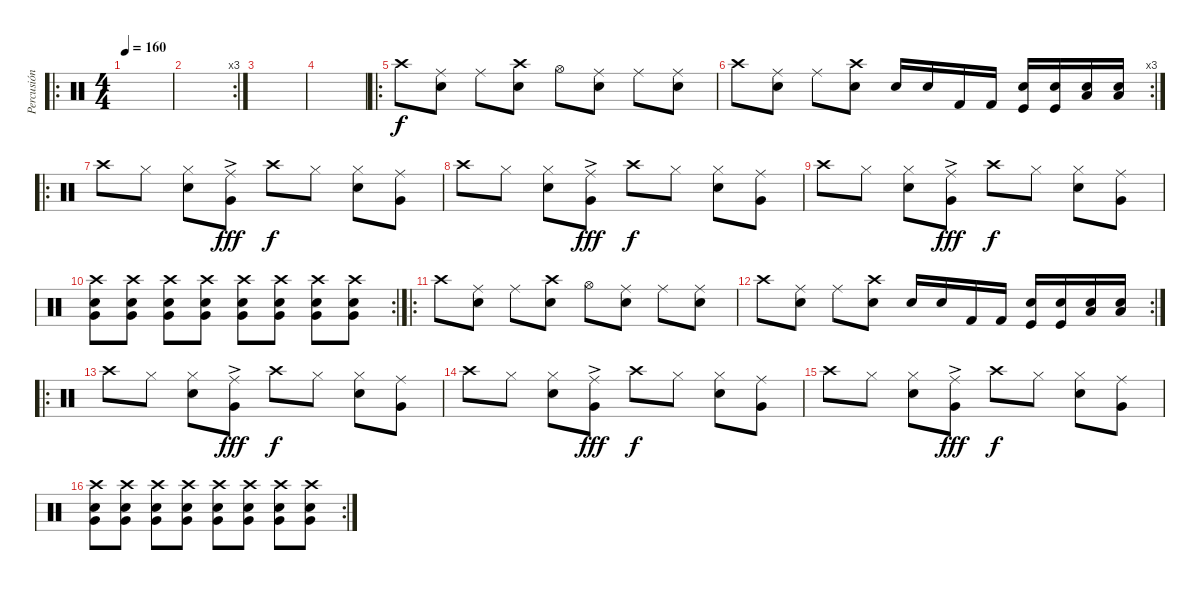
\track ("Percusión" "Percusión") {instrument percussion}
\staff {score}
\articulation defaults
\ro
\ts (4 4)
\tempo 160
\clef neutral
\ks c
|
\rc 3
|
|
|
\ro "Crash high (hit)".8
("Ride (middle)" "Snare (hit) 2").8 "Ride (middle)".8 ("Crash high (hit)" "Snare (hit) 2").8 "Hi-Hat (open)".8 ("Ride (middle)" "Snare (hit) 2").8 "Ride (middle)".8 ("Ride (middle)" "Snare (hit) 2").8 |
\rc 3 "Crash high (hit)".8
("Ride (middle)" "Snare (hit) 2").8 "Ride (middle)".8 ("Crash high (hit)" "Snare (hit) 2").8 "Snare (hit) 2".16 "Snare (hit) 2".16 "Kick (hit) 2".16 "Kick (hit) 2".16 ("Kick (hit)" "Snare (hit) 2").16 ("Kick (hit)" "Snare (hit) 2").16 ("Snare (hit) 2" "Low Floor Tom (hit)").16 ("Snare (hit) 2" "Low Floor Tom (hit)").16 |
\ro "Crash high (hit)".8 "Hi-Hat (closed)".8
("Hi-Hat (closed)" "Snare (hit) 2").8 ("Ride (middle)" "Very Low Tom (hit)"{ac}).8{dy fff} "Crash high (hit)".8{dy f} "Hi-Hat (closed)".8 ("Hi-Hat (closed)" "Snare (hit) 2").8 ("Ride (middle)" "Very Low Tom (hit)").8 |
"Crash high (hit)".8 "Hi-Hat (closed)".8 ("Hi-Hat (closed)" "Snare (hit) 2").8 ("Ride (middle)" "Very Low Tom (hit)"{ac}).8{dy fff} "Crash high (hit)".8{dy f} "Hi-Hat (closed)".8 ("Hi-Hat (closed)" "Snare (hit) 2").8 ("Ride (middle)" "Very Low Tom (hit)").8 |
"Crash high (hit)".8 "Hi-Hat (closed)".8 ("Hi-Hat (closed)" "Snare (hit) 2").8 ("Ride (middle)" "Very Low Tom (hit)"{ac}).8{dy fff} "Crash high (hit)".8{dy f} "Hi-Hat (closed)".8 ("Hi-Hat (closed)" "Snare (hit) 2").8 ("Ride (middle)" "Very Low Tom (hit)").8 |
\rc 2
("Crash high (hit)" "Snare (hit) 2" "Very Low Tom (hit)").8 ("Crash high (hit)" "Snare (hit) 2" "Very Low Tom (hit)").8 ("Crash high (hit)" "Snare (hit) 2" "Very Low Tom (hit)").8 ("Crash high (hit)" "Snare (hit) 2" "Very Low Tom (hit)").8 ("Crash high (hit)" "Snare (hit) 2" "Very Low Tom (hit)").8 ("Crash high (hit)" "Snare (hit) 2" "Very Low Tom (hit)").8 ("Crash high (hit)" "Snare (hit) 2" "Very Low Tom (hit)").8 ("Crash high (hit)" "Snare (hit) 2" "Very Low Tom (hit)").8 |
\ro "Crash high (hit)".8
("Ride (middle)" "Snare (hit) 2").8 "Ride (middle)".8 ("Crash high (hit)" "Snare (hit) 2").8 "Hi-Hat (open)".8 ("Ride (middle)" "Snare (hit) 2").8 "Ride (middle)".8 ("Ride (middle)" "Snare (hit) 2").8 |
\rc 2 "Crash high (hit)".8
("Ride (middle)" "Snare (hit) 2").8 "Ride (middle)".8 ("Crash high (hit)" "Snare (hit) 2").8 "Snare (hit) 2".16 "Snare (hit) 2".16 "Kick (hit) 2".16 "Kick (hit) 2".16 ("Kick (hit)" "Snare (hit) 2").16 ("Kick (hit)" "Snare (hit) 2").16 ("Snare (hit) 2" "Low Floor Tom (hit)").16 ("Snare (hit) 2" "Low Floor Tom (hit)").16 |
\ro "Crash high (hit)".8 "Hi-Hat (closed)".8
("Hi-Hat (closed)" "Snare (hit) 2").8 ("Ride (middle)" "Very Low Tom (hit)"{ac}).8{dy fff} "Crash high (hit)".8{dy f} "Hi-Hat (closed)".8 ("Hi-Hat (closed)" "Snare (hit) 2").8 ("Ride (middle)" "Very Low Tom (hit)").8 |
"Crash high (hit)".8 "Hi-Hat (closed)".8 ("Hi-Hat (closed)" "Snare (hit) 2").8 ("Ride (middle)" "Very Low Tom (hit)"{ac}).8{dy fff} "Crash high (hit)".8{dy f} "Hi-Hat (closed)".8 ("Hi-Hat (closed)" "Snare (hit) 2").8 ("Ride (middle)" "Very Low Tom (hit)").8 |
"Crash high (hit)".8 "Hi-Hat (closed)".8 ("Hi-Hat (closed)" "Snare (hit) 2").8 ("Ride (middle)" "Very Low Tom (hit)"{ac}).8{dy fff} "Crash high (hit)".8{dy f} "Hi-Hat (closed)".8 ("Hi-Hat (closed)" "Snare (hit) 2").8 ("Ride (middle)" "Very Low Tom (hit)").8 |
\rc 2
("Crash high (hit)" "Snare (hit) 2" "Very Low Tom (hit)").8 ("Crash high (hit)" "Snare (hit) 2" "Very Low Tom (hit)").8 ("Crash high (hit)" "Snare (hit) 2" "Very Low Tom (hit)").8 ("Crash high (hit)" "Snare (hit) 2" "Very Low Tom (hit)").8 ("Crash high (hit)" "Snare (hit) 2" "Very Low Tom (hit)").8 ("Crash high (hit)" "Snare (hit) 2" "Very Low Tom (hit)").8 ("Crash high (hit)" "Snare (hit) 2" "Very Low Tom (hit)").8 ("Crash high (hit)" "Snare (hit) 2" "Very Low Tom (hit)").8
